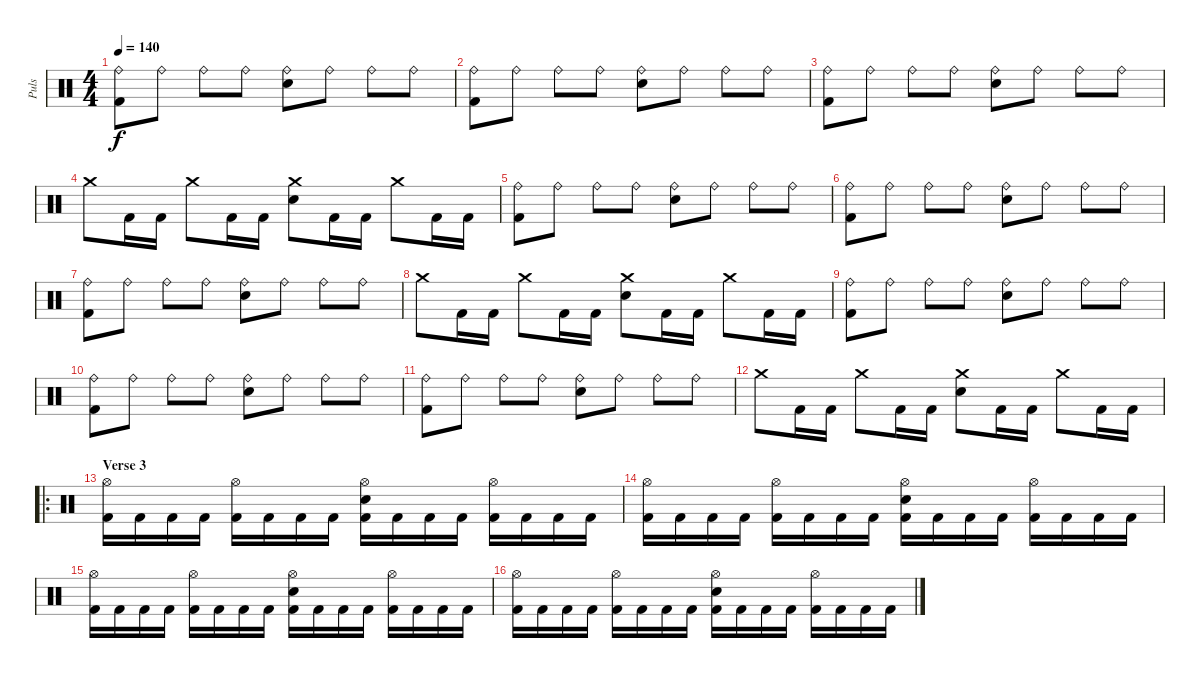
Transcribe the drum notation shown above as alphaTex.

\track ("Puls" "Puls") {instrument percussion}
\staff {score}
\articulation defaults
\ts (4 4)
\tempo 140
\clef neutral
\ks c
("Ride (bell)" "Kick (hit) 2").8{dy f} "Ride (bell)".8 "Ride (bell)".8 "Ride (bell)".8 ("Ride (bell)" "Electric Snare (hit)").8 "Ride (bell)".8 "Ride (bell)".8 "Ride (bell)".8 |
("Ride (bell)" "Kick (hit) 2").8 "Ride (bell)".8 "Ride (bell)".8 "Ride (bell)".8 ("Ride (bell)" "Electric Snare (hit)").8 "Ride (bell)".8 "Ride (bell)".8 "Ride (bell)".8 |
("Ride (bell)" "Kick (hit) 2").8 "Ride (bell)".8 "Ride (bell)".8 "Ride (bell)".8 ("Ride (bell)" "Electric Snare (hit)").8 "Ride (bell)".8 "Ride (bell)".8 "Ride (bell)".8 |
"Crash medium (hit)".8 "Kick (hit) 2".16 "Kick (hit) 2".16 "Crash medium (hit)".8 "Kick (hit) 2".16 "Kick (hit) 2".16 ("Crash medium (hit)" "Electric Snare (hit)").8 "Kick (hit) 2".16 "Kick (hit) 2".16 "Crash medium (hit)".8 "Kick (hit) 2".16 "Kick (hit) 2".16 |
("Ride (bell)" "Kick (hit) 2").8 "Ride (bell)".8 "Ride (bell)".8 "Ride (bell)".8 ("Ride (bell)" "Electric Snare (hit)").8 "Ride (bell)".8 "Ride (bell)".8 "Ride (bell)".8 |
("Ride (bell)" "Kick (hit) 2").8 "Ride (bell)".8 "Ride (bell)".8 "Ride (bell)".8 ("Ride (bell)" "Electric Snare (hit)").8 "Ride (bell)".8 "Ride (bell)".8 "Ride (bell)".8 |
("Ride (bell)" "Kick (hit) 2").8 "Ride (bell)".8 "Ride (bell)".8 "Ride (bell)".8 ("Ride (bell)" "Electric Snare (hit)").8 "Ride (bell)".8 "Ride (bell)".8 "Ride (bell)".8 |
"Crash medium (hit)".8 "Kick (hit) 2".16 "Kick (hit) 2".16 "Crash medium (hit)".8 "Kick (hit) 2".16 "Kick (hit) 2".16 ("Crash medium (hit)" "Electric Snare (hit)").8 "Kick (hit) 2".16 "Kick (hit) 2".16 "Crash medium (hit)".8 "Kick (hit) 2".16 "Kick (hit) 2".16 |
("Ride (bell)" "Kick (hit) 2").8 "Ride (bell)".8 "Ride (bell)".8 "Ride (bell)".8 ("Ride (bell)" "Electric Snare (hit)").8 "Ride (bell)".8 "Ride (bell)".8 "Ride (bell)".8 |
("Ride (bell)" "Kick (hit) 2").8 "Ride (bell)".8 "Ride (bell)".8 "Ride (bell)".8 ("Ride (bell)" "Electric Snare (hit)").8 "Ride (bell)".8 "Ride (bell)".8 "Ride (bell)".8 |
("Ride (bell)" "Kick (hit) 2").8 "Ride (bell)".8 "Ride (bell)".8 "Ride (bell)".8 ("Ride (bell)" "Electric Snare (hit)").8 "Ride (bell)".8 "Ride (bell)".8 "Ride (bell)".8 |
"Crash medium (hit)".8 "Kick (hit) 2".16 "Kick (hit) 2".16 "Crash medium (hit)".8 "Kick (hit) 2".16 "Kick (hit) 2".16 ("Crash medium (hit)" "Electric Snare (hit)").8 "Kick (hit) 2".16 "Kick (hit) 2".16 "Crash medium (hit)".8 "Kick (hit) 2".16 "Kick (hit) 2".16 |
\ro
\section ("" "Verse 3")
("Hi-Hat (open)" "Kick (hit) 2").16 "Kick (hit) 2".16 "Kick (hit) 2".16 "Kick (hit) 2".16 ("Hi-Hat (open)" "Kick (hit) 2").16 "Kick (hit) 2".16 "Kick (hit) 2".16 "Kick (hit) 2".16 ("Hi-Hat (open)" "Electric Snare (hit)" "Kick (hit) 2").16 "Kick (hit) 2".16 "Kick (hit) 2".16 "Kick (hit) 2".16 ("Hi-Hat (open)" "Kick (hit) 2").16 "Kick (hit) 2".16 "Kick (hit) 2".16 "Kick (hit) 2".16 |
("Hi-Hat (open)" "Kick (hit) 2").16 "Kick (hit) 2".16 "Kick (hit) 2".16 "Kick (hit) 2".16 ("Hi-Hat (open)" "Kick (hit) 2").16 "Kick (hit) 2".16 "Kick (hit) 2".16 "Kick (hit) 2".16 ("Hi-Hat (open)" "Electric Snare (hit)" "Kick (hit) 2").16 "Kick (hit) 2".16 "Kick (hit) 2".16 "Kick (hit) 2".16 ("Hi-Hat (open)" "Kick (hit) 2").16 "Kick (hit) 2".16 "Kick (hit) 2".16 "Kick (hit) 2".16 |
("Hi-Hat (open)" "Kick (hit) 2").16 "Kick (hit) 2".16 "Kick (hit) 2".16 "Kick (hit) 2".16 ("Hi-Hat (open)" "Kick (hit) 2").16 "Kick (hit) 2".16 "Kick (hit) 2".16 "Kick (hit) 2".16 ("Hi-Hat (open)" "Electric Snare (hit)" "Kick (hit) 2").16 "Kick (hit) 2".16 "Kick (hit) 2".16 "Kick (hit) 2".16 ("Hi-Hat (open)" "Kick (hit) 2").16 "Kick (hit) 2".16 "Kick (hit) 2".16 "Kick (hit) 2".16 |
("Hi-Hat (open)" "Kick (hit) 2").16 "Kick (hit) 2".16 "Kick (hit) 2".16 "Kick (hit) 2".16 ("Hi-Hat (open)" "Kick (hit) 2").16 "Kick (hit) 2".16 "Kick (hit) 2".16 "Kick (hit) 2".16 ("Hi-Hat (open)" "Electric Snare (hit)" "Kick (hit) 2").16 "Kick (hit) 2".16 "Kick (hit) 2".16 "Kick (hit) 2".16 ("Hi-Hat (open)" "Kick (hit) 2").16 "Kick (hit) 2".16 "Kick (hit) 2".16 "Kick (hit) 2".16
